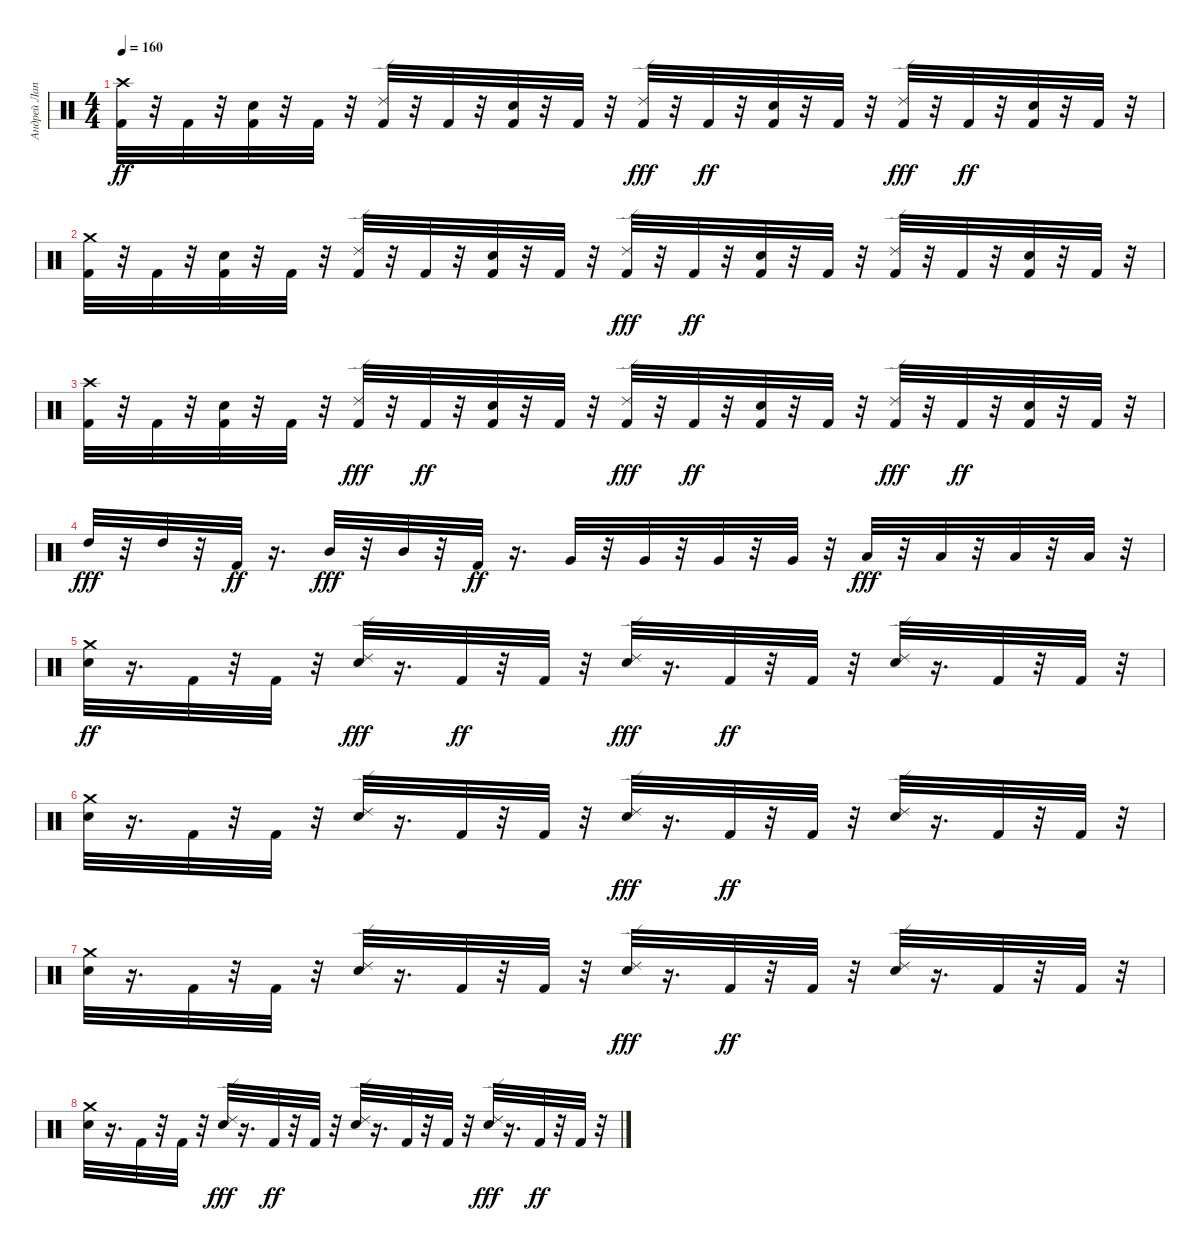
\track ("Андрей Лаптев" "Андрей Лап") {instrument percussion}
\staff {score}
\articulation defaults
\ts (4 4)
\tempo 160
\clef neutral
\ks c
("Crash high (hit)" "Kick (hit) 2").32{dy ff} r.32 "Kick (hit) 2".32 r.32 ("Electric Snare (hit)" "Kick (hit) 2").32 r.32 "Kick (hit) 2".32 r.32 ("Ride (edge) 2" "Kick (hit) 2").32 r.32 "Kick (hit) 2".32 r.32 ("Kick (hit) 2" "Electric Snare (hit)").32 r.32 "Kick (hit) 2".32 r.32 ("Kick (hit) 2" "Ride (edge) 2").32{dy fff} r.32 "Kick (hit) 2".32{dy ff} r.32 ("Kick (hit) 2" "Electric Snare (hit)").32 r.32 "Kick (hit) 2".32 r.32 ("Kick (hit) 2" "Ride (edge) 2").32{dy fff} r.32 "Kick (hit) 2".32{dy ff} r.32 ("Kick (hit) 2" "Electric Snare (hit)").32 r.32 "Kick (hit) 2".32 r.32 |
("Crash medium (hit)" "Kick (hit) 2").32 r.32 "Kick (hit) 2".32 r.32 ("Kick (hit) 2" "Electric Snare (hit)").32 r.32 "Kick (hit) 2".32 r.32 ("Ride (edge) 2" "Kick (hit) 2").32 r.32 "Kick (hit) 2".32 r.32 ("Electric Snare (hit)" "Kick (hit) 2").32 r.32 "Kick (hit) 2".32 r.32 ("Kick (hit) 2" "Ride (edge) 2").32{dy fff} r.32 "Kick (hit) 2".32{dy ff} r.32 ("Kick (hit) 2" "Electric Snare (hit)").32 r.32 "Kick (hit) 2".32 r.32 ("Ride (edge) 2" "Kick (hit) 2").32 r.32 "Kick (hit) 2".32 r.32 ("Kick (hit) 2" "Electric Snare (hit)").32 r.32 "Kick (hit) 2".32 r.32 |
("Kick (hit) 2" "Crash high (hit)").32 r.32 "Kick (hit) 2".32 r.32 ("Electric Snare (hit)" "Kick (hit) 2").32 r.32 "Kick (hit) 2".32 r.32 ("Kick (hit) 2" "Ride (edge) 2").32{dy fff} r.32 "Kick (hit) 2".32{dy ff} r.32 ("Electric Snare (hit)" "Kick (hit) 2").32 r.32 "Kick (hit) 2".32 r.32 ("Kick (hit) 2" "Ride (edge) 2").32{dy fff} r.32 "Kick (hit) 2".32{dy ff} r.32 ("Kick (hit) 2" "Electric Snare (hit)").32 r.32 "Kick (hit) 2".32 r.32 ("Kick (hit) 2" "Ride (edge) 2").32{dy fff} r.32 "Kick (hit) 2".32{dy ff} r.32 ("Electric Snare (hit)" "Kick (hit) 2").32 r.32 "Kick (hit) 2".32 r.32 |
"High Tom (hit)".32{dy fff} r.32 "High Tom (hit)".32 r.32 "Kick (hit) 2".32{dy ff} r.16{d} "Mid Tom (hit)".32{dy fff} r.32 "Mid Tom (hit)".32 r.32 "Kick (hit) 2".32{dy ff} r.16{d} "Very Low Tom (hit)".32 r.32 "Very Low Tom (hit)".32 r.32 "Very Low Tom (hit)".32 r.32 "Very Low Tom (hit)".32 r.32 "Low Tom (hit)".32{dy fff} r.32 "Low Tom (hit)".32 r.32 "Low Tom (hit)".32 r.32 "Low Tom (hit)".32 r.32 |
("Crash medium (hit)" "Electric Snare (hit)").32{dy ff} r.16{d} "Kick (hit) 2".32 r.32 "Kick (hit) 2".32 r.32 ("Electric Snare (hit)" "Ride (edge) 2").32{dy fff} r.16{d} "Kick (hit) 2".32{dy ff} r.32 "Kick (hit) 2".32 r.32 ("Electric Snare (hit)" "Ride (edge) 2").32{dy fff} r.16{d} "Kick (hit) 2".32{dy ff} r.32 "Kick (hit) 2".32 r.32 ("Ride (edge) 2" "Electric Snare (hit)").32 r.16{d} "Kick (hit) 2".32 r.32 "Kick (hit) 2".32 r.32 |
("Electric Snare (hit)" "Crash medium (hit)").32 r.16{d} "Kick (hit) 2".32 r.32 "Kick (hit) 2".32 r.32 ("Ride (edge) 2" "Electric Snare (hit)").32 r.16{d} "Kick (hit) 2".32 r.32 "Kick (hit) 2".32 r.32 ("Electric Snare (hit)" "Ride (edge) 2").32{dy fff} r.16{d} "Kick (hit) 2".32{dy ff} r.32 "Kick (hit) 2".32 r.32 ("Ride (edge) 2" "Electric Snare (hit)").32 r.16{d} "Kick (hit) 2".32 r.32 "Kick (hit) 2".32 r.32 |
("Electric Snare (hit)" "Crash medium (hit)").32 r.16{d} "Kick (hit) 2".32 r.32 "Kick (hit) 2".32 r.32 ("Ride (edge) 2" "Electric Snare (hit)").32 r.16{d} "Kick (hit) 2".32 r.32 "Kick (hit) 2".32 r.32 ("Electric Snare (hit)" "Ride (edge) 2").32{dy fff} r.16{d} "Kick (hit) 2".32{dy ff} r.32 "Kick (hit) 2".32 r.32 ("Ride (edge) 2" "Electric Snare (hit)").32 r.16{d} "Kick (hit) 2".32 r.32 "Kick (hit) 2".32 r.32 |
("Crash medium (hit)" "Electric Snare (hit)").32 r.16{d} "Kick (hit) 2".32 r.32 "Kick (hit) 2".32 r.32 ("Electric Snare (hit)" "Ride (edge) 2").32{dy fff} r.16{d} "Kick (hit) 2".32{dy ff} r.32 "Kick (hit) 2".32 r.32 ("Ride (edge) 2" "Electric Snare (hit)").32 r.16{d} "Kick (hit) 2".32 r.32 "Kick (hit) 2".32 r.32 ("Electric Snare (hit)" "Ride (edge) 2").32{dy fff} r.16{d} "Kick (hit) 2".32{dy ff} r.32 "Kick (hit) 2".32 r.32
